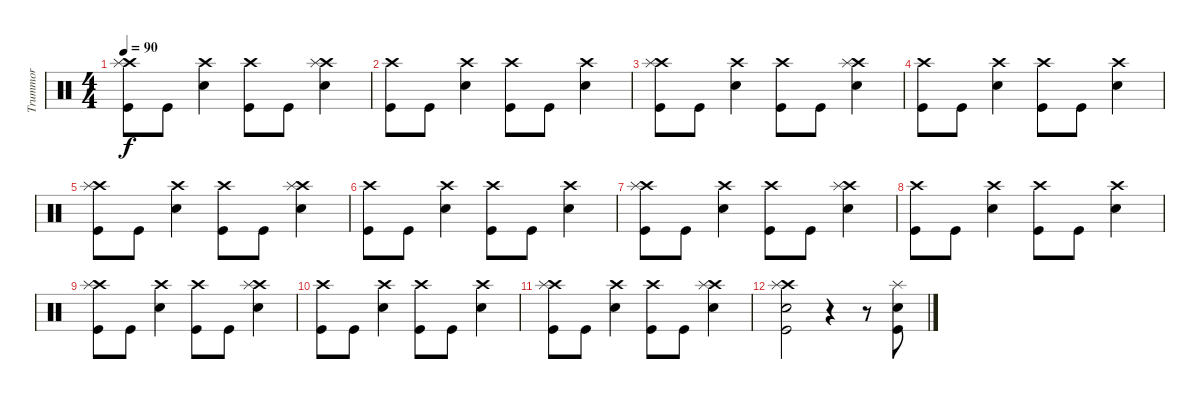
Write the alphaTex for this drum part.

\track ("Trummor" "Trummor") {instrument percussion}
\staff {score}
\articulation defaults
\ts (4 4)
\tempo 90
\clef neutral
\ks c
("Crash high (hit)" "Splash (hit)" "Kick (hit)").8{dy f} "Kick (hit)".8 ("Crash high (hit)" "Snare (hit) 2").4 ("Crash high (hit)" "Kick (hit)").8 "Kick (hit)".8 ("Crash high (hit)" "Splash (hit)" "Snare (hit) 2").4 |
("Crash high (hit)" "Kick (hit)").8 "Kick (hit)".8 ("Crash high (hit)" "Snare (hit) 2").4 ("Crash high (hit)" "Kick (hit)").8 "Kick (hit)".8 ("Crash high (hit)" "Snare (hit) 2").4 |
("Crash high (hit)" "Splash (hit)" "Kick (hit)").8 "Kick (hit)".8 ("Crash high (hit)" "Snare (hit) 2").4 ("Crash high (hit)" "Kick (hit)").8 "Kick (hit)".8 ("Crash high (hit)" "Splash (hit)" "Snare (hit) 2").4 |
("Crash high (hit)" "Kick (hit)").8 "Kick (hit)".8 ("Crash high (hit)" "Snare (hit) 2").4 ("Crash high (hit)" "Kick (hit)").8 "Kick (hit)".8 ("Crash high (hit)" "Snare (hit) 2").4 |
("Crash high (hit)" "Splash (hit)" "Kick (hit)").8 "Kick (hit)".8 ("Crash high (hit)" "Snare (hit) 2").4 ("Crash high (hit)" "Kick (hit)").8 "Kick (hit)".8 ("Crash high (hit)" "Splash (hit)" "Snare (hit) 2").4 |
("Crash high (hit)" "Kick (hit)").8 "Kick (hit)".8 ("Crash high (hit)" "Snare (hit) 2").4 ("Crash high (hit)" "Kick (hit)").8 "Kick (hit)".8 ("Crash high (hit)" "Snare (hit) 2").4 |
("Crash high (hit)" "Splash (hit)" "Kick (hit)").8 "Kick (hit)".8 ("Crash high (hit)" "Snare (hit) 2").4 ("Crash high (hit)" "Kick (hit)").8 "Kick (hit)".8 ("Crash high (hit)" "Splash (hit)" "Snare (hit) 2").4 |
("Crash high (hit)" "Kick (hit)").8 "Kick (hit)".8 ("Crash high (hit)" "Snare (hit) 2").4 ("Crash high (hit)" "Kick (hit)").8 "Kick (hit)".8 ("Crash high (hit)" "Snare (hit) 2").4 |
("Crash high (hit)" "Splash (hit)" "Kick (hit)").8 "Kick (hit)".8 ("Crash high (hit)" "Snare (hit) 2").4 ("Crash high (hit)" "Kick (hit)").8 "Kick (hit)".8 ("Crash high (hit)" "Splash (hit)" "Snare (hit) 2").4 |
("Crash high (hit)" "Kick (hit)").8 "Kick (hit)".8 ("Crash high (hit)" "Snare (hit) 2").4 ("Crash high (hit)" "Kick (hit)").8 "Kick (hit)".8 ("Crash high (hit)" "Snare (hit) 2").4 |
("Crash high (hit)" "Splash (hit)" "Kick (hit)").8 "Kick (hit)".8 ("Crash high (hit)" "Snare (hit) 2").4 ("Crash high (hit)" "Kick (hit)").8 "Kick (hit)".8 ("Crash high (hit)" "Splash (hit)" "Snare (hit) 2").4 |
("Crash high (hit)" "Splash (hit)" "Snare (hit) 2" "Kick (hit)").2 r.4 r.8 ("Splash (hit)" "Snare (hit) 2" "Kick (hit)").8
